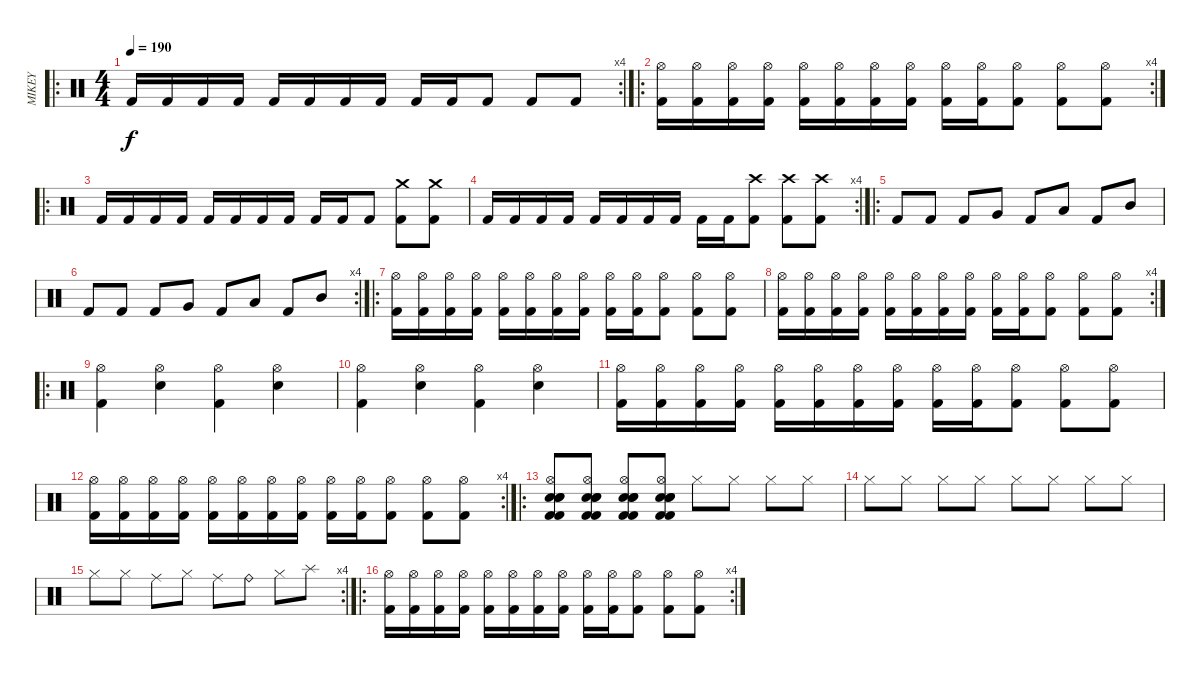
\track ("MIKEY" "MIKEY") {instrument percussion}
\staff {score}
\articulation defaults
\ro
\rc 4
\ts (4 4)
\tempo 190
\clef neutral
\ks c "Kick (hit) 2".16{dy f} "Kick (hit) 2".16 "Kick (hit) 2".16 "Kick (hit) 2".16 "Kick (hit) 2".16 "Kick (hit) 2".16 "Kick (hit) 2".16 "Kick (hit) 2".16 "Kick (hit) 2".16 "Kick (hit) 2".16 "Kick (hit) 2".8 "Kick (hit) 2".8 "Kick (hit) 2".8
|
\ro
\rc 4
("Hi-Hat (open)" "Kick (hit) 2").16 ("Hi-Hat (open)" "Kick (hit) 2").16 ("Hi-Hat (open)" "Kick (hit) 2").16 ("Hi-Hat (open)" "Kick (hit) 2").16 ("Hi-Hat (open)" "Kick (hit) 2").16 ("Hi-Hat (open)" "Kick (hit) 2").16 ("Hi-Hat (open)" "Kick (hit) 2").16 ("Hi-Hat (open)" "Kick (hit) 2").16 ("Hi-Hat (open)" "Kick (hit) 2").16 ("Hi-Hat (open)" "Kick (hit) 2").16 ("Hi-Hat (open)" "Kick (hit) 2").8 ("Hi-Hat (open)" "Kick (hit) 2").8 ("Hi-Hat (open)" "Kick (hit) 2").8 |
\ro "Kick (hit) 2".16 "Kick (hit) 2".16 "Kick (hit) 2".16 "Kick (hit) 2".16 "Kick (hit) 2".16 "Kick (hit) 2".16 "Kick (hit) 2".16 "Kick (hit) 2".16 "Kick (hit) 2".16 "Kick (hit) 2".16 "Kick (hit) 2".8
("Crash medium (hit)" "Kick (hit) 2").8 ("Crash medium (hit)" "Kick (hit) 2").8 |
\rc 4 "Kick (hit) 2".16 "Kick (hit) 2".16 "Kick (hit) 2".16 "Kick (hit) 2".16 "Kick (hit) 2".16 "Kick (hit) 2".16 "Kick (hit) 2".16 "Kick (hit) 2".16 "Kick (hit) 2".16 "Kick (hit) 2".16
("Crash high (hit)" "Kick (hit) 2").8 ("Crash high (hit)" "Kick (hit) 2").8 ("Crash high (hit)" "Kick (hit) 2").8 |
\ro "Kick (hit) 2".8 "Kick (hit) 2".8 "Kick (hit) 2".8 "Very Low Tom (hit)".8 "Kick (hit) 2".8 "Low Tom (hit)".8 "Kick (hit) 2".8 "Mid Tom (hit)".8
|
\rc 4 "Kick (hit) 2".8 "Kick (hit) 2".8 "Kick (hit) 2".8 "Very Low Tom (hit)".8 "Kick (hit) 2".8 "Low Tom (hit)".8 "Kick (hit) 2".8 "Mid Tom (hit)".8
|
\ro
("Hi-Hat (open)" "Kick (hit) 2").16 ("Hi-Hat (open)" "Kick (hit) 2").16 ("Hi-Hat (open)" "Kick (hit) 2").16 ("Hi-Hat (open)" "Kick (hit) 2").16 ("Hi-Hat (open)" "Kick (hit) 2").16 ("Hi-Hat (open)" "Kick (hit) 2").16 ("Hi-Hat (open)" "Kick (hit) 2").16 ("Hi-Hat (open)" "Kick (hit) 2").16 ("Hi-Hat (open)" "Kick (hit) 2").16 ("Hi-Hat (open)" "Kick (hit) 2").16 ("Hi-Hat (open)" "Kick (hit) 2").8 ("Hi-Hat (open)" "Kick (hit) 2").8 ("Hi-Hat (open)" "Kick (hit) 2").8 |
\rc 4
("Hi-Hat (open)" "Kick (hit) 2").16 ("Hi-Hat (open)" "Kick (hit) 2").16 ("Hi-Hat (open)" "Kick (hit) 2").16 ("Hi-Hat (open)" "Kick (hit) 2").16 ("Hi-Hat (open)" "Kick (hit) 2").16 ("Hi-Hat (open)" "Kick (hit) 2").16 ("Hi-Hat (open)" "Kick (hit) 2").16 ("Hi-Hat (open)" "Kick (hit) 2").16 ("Hi-Hat (open)" "Kick (hit) 2").16 ("Hi-Hat (open)" "Kick (hit) 2").16 ("Hi-Hat (open)" "Kick (hit) 2").8 ("Hi-Hat (open)" "Kick (hit) 2").8 ("Hi-Hat (open)" "Kick (hit) 2").8 |
\ro
("Hi-Hat (open)" "Kick (hit) 2").4 ("Hi-Hat (open)" "Snare (hit) 2").4 ("Hi-Hat (open)" "Kick (hit) 2").4 ("Hi-Hat (open)" "Snare (hit) 2").4 |
("Hi-Hat (open)" "Kick (hit) 2").4 ("Hi-Hat (open)" "Snare (hit) 2").4 ("Hi-Hat (open)" "Kick (hit) 2").4 ("Hi-Hat (open)" "Snare (hit) 2").4 |
("Hi-Hat (open)" "Kick (hit) 2").16 ("Hi-Hat (open)" "Kick (hit) 2").16 ("Hi-Hat (open)" "Kick (hit) 2").16 ("Hi-Hat (open)" "Kick (hit) 2").16 ("Hi-Hat (open)" "Kick (hit) 2").16 ("Hi-Hat (open)" "Kick (hit) 2").16 ("Hi-Hat (open)" "Kick (hit) 2").16 ("Hi-Hat (open)" "Kick (hit) 2").16 ("Hi-Hat (open)" "Kick (hit) 2").16 ("Hi-Hat (open)" "Kick (hit) 2").16 ("Hi-Hat (open)" "Kick (hit) 2").8 ("Hi-Hat (open)" "Kick (hit) 2").8 ("Hi-Hat (open)" "Kick (hit) 2").8 |
\rc 4
("Hi-Hat (open)" "Kick (hit) 2").16 ("Hi-Hat (open)" "Kick (hit) 2").16 ("Hi-Hat (open)" "Kick (hit) 2").16 ("Hi-Hat (open)" "Kick (hit) 2").16 ("Hi-Hat (open)" "Kick (hit) 2").16 ("Hi-Hat (open)" "Kick (hit) 2").16 ("Hi-Hat (open)" "Kick (hit) 2").16 ("Hi-Hat (open)" "Kick (hit) 2").16 ("Hi-Hat (open)" "Kick (hit) 2").16 ("Hi-Hat (open)" "Kick (hit) 2").16 ("Hi-Hat (open)" "Kick (hit) 2").8 ("Hi-Hat (open)" "Kick (hit) 2").8 ("Hi-Hat (open)" "Kick (hit) 2").8 |
\ro
("Hi-Hat (open)" "Electric Snare (hit)" "Snare (hit) 2" "Snare (hit) 2" "Kick (hit) 2" "Kick (hit) 2").8 ("Hi-Hat (open)" "Electric Snare (hit)" "Snare (hit) 2" "Snare (hit) 2" "Kick (hit) 2" "Kick (hit) 2").8 ("Hi-Hat (open)" "Electric Snare (hit)" "Snare (hit) 2" "Snare (hit) 2" "Kick (hit) 2" "Kick (hit) 2").8 ("Hi-Hat (open)" "Electric Snare (hit)" "Snare (hit) 2" "Snare (hit) 2" "Kick (hit) 2" "Kick (hit) 2").8 "Hi-Hat (closed)".8 "Hi-Hat (closed)".8 "Hi-Hat (closed)".8 "Hi-Hat (closed)".8 |
"Hi-Hat (closed)".8 "Hi-Hat (closed)".8 "Hi-Hat (closed)".8 "Hi-Hat (closed)".8 "Hi-Hat (closed)".8 "Hi-Hat (closed)".8 "Hi-Hat (closed)".8 "Hi-Hat (closed)".8 |
\rc 4 "Hi-Hat (closed)".8 "Hi-Hat (closed)".8 "Ride (middle)".8 "Hi-Hat (closed)".8 "Ride (middle)".8 "Ride (bell)".8 "Hi-Hat (closed)".8 "Splash (hit)".8
|
\ro
\rc 4
("Hi-Hat (open)" "Kick (hit) 2").16 ("Hi-Hat (open)" "Kick (hit) 2").16 ("Hi-Hat (open)" "Kick (hit) 2").16 ("Hi-Hat (open)" "Kick (hit) 2").16 ("Hi-Hat (open)" "Kick (hit) 2").16 ("Hi-Hat (open)" "Kick (hit) 2").16 ("Hi-Hat (open)" "Kick (hit) 2").16 ("Hi-Hat (open)" "Kick (hit) 2").16 ("Hi-Hat (open)" "Kick (hit) 2").16 ("Hi-Hat (open)" "Kick (hit) 2").16 ("Hi-Hat (open)" "Kick (hit) 2").8 ("Hi-Hat (open)" "Kick (hit) 2").8 ("Hi-Hat (open)" "Kick (hit) 2").8
